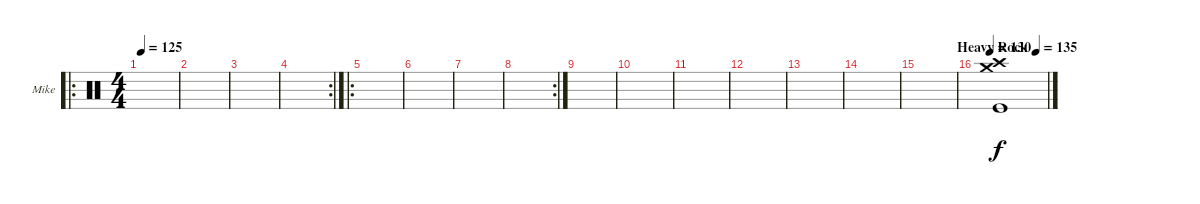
\defaultSystemsLayout 4
\bracketExtendMode groupsimilarinstruments
\firstSystemTrackNameOrientation horizontal
\otherSystemsTrackNameOrientation horizontal
\track ("Mike Portnoy" "Mike") {instrument percussion}
\staff {score}
\articulation defaults
\ro
\ts (4 4)
\tempo 125
\clef neutral
\ks c
|
|
|
\rc 2
|
\ro
|
|
|
\rc 2
|
|
|
|
|
|
|
\tempo (135 "Heavy Rock" 1)
|
\tempo 130
("Crash medium (hit)" "Crash high (hit)" "Kick (hit)").1
